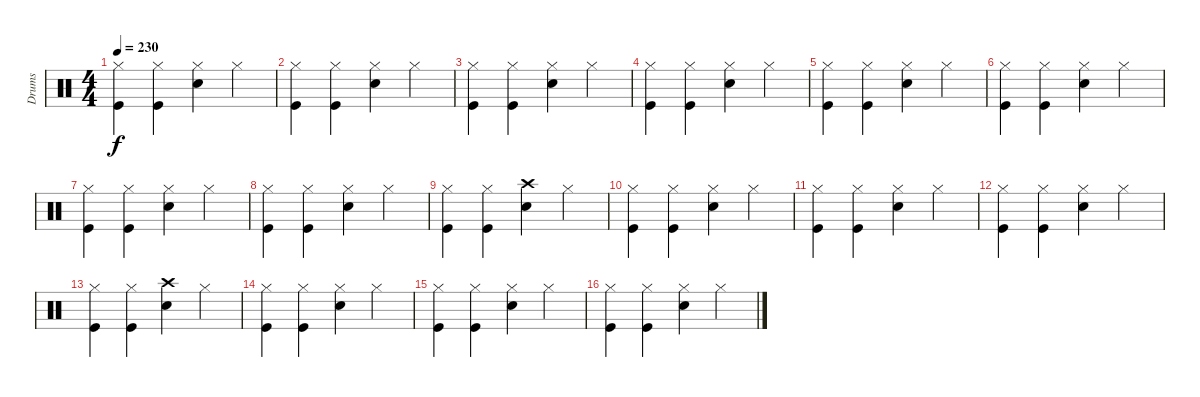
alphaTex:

\track ("Drums" "Drums") {instrument percussion}
\staff {score}
\articulation defaults
\ts (4 4)
\tempo 230
\clef neutral
\ks c
("Hi-Hat (closed)" "Kick (hit)").4{dy f} ("Hi-Hat (closed)" "Kick (hit)").4 ("Hi-Hat (closed)" "Snare (hit) 2").4 "Hi-Hat (closed)".4 |
("Hi-Hat (closed)" "Kick (hit)").4 ("Hi-Hat (closed)" "Kick (hit)").4 ("Hi-Hat (closed)" "Snare (hit) 2").4 "Hi-Hat (closed)".4 |
("Hi-Hat (closed)" "Kick (hit)").4 ("Hi-Hat (closed)" "Kick (hit)").4 ("Hi-Hat (closed)" "Snare (hit) 2").4 "Hi-Hat (closed)".4 |
("Hi-Hat (closed)" "Kick (hit)").4 ("Hi-Hat (closed)" "Kick (hit)").4 ("Hi-Hat (closed)" "Snare (hit) 2").4 "Hi-Hat (closed)".4 |
("Hi-Hat (closed)" "Kick (hit)").4 ("Hi-Hat (closed)" "Kick (hit)").4 ("Hi-Hat (closed)" "Snare (hit) 2").4 "Hi-Hat (closed)".4 |
("Hi-Hat (closed)" "Kick (hit)").4 ("Hi-Hat (closed)" "Kick (hit)").4 ("Hi-Hat (closed)" "Snare (hit) 2").4 "Hi-Hat (closed)".4 |
("Hi-Hat (closed)" "Kick (hit)").4 ("Hi-Hat (closed)" "Kick (hit)").4 ("Hi-Hat (closed)" "Snare (hit) 2").4 "Hi-Hat (closed)".4 |
("Hi-Hat (closed)" "Kick (hit)").4 ("Hi-Hat (closed)" "Kick (hit)").4 ("Hi-Hat (closed)" "Snare (hit) 2").4 "Hi-Hat (closed)".4 |
("Hi-Hat (closed)" "Kick (hit)").4 ("Hi-Hat (closed)" "Kick (hit)").4 ("Crash high (hit)" "Snare (hit) 2").4 "Hi-Hat (closed)".4 |
("Hi-Hat (closed)" "Kick (hit)").4 ("Hi-Hat (closed)" "Kick (hit)").4 ("Hi-Hat (closed)" "Snare (hit) 2").4 "Hi-Hat (closed)".4 |
("Hi-Hat (closed)" "Kick (hit)").4 ("Hi-Hat (closed)" "Kick (hit)").4 ("Hi-Hat (closed)" "Snare (hit) 2").4 "Hi-Hat (closed)".4 |
("Hi-Hat (closed)" "Kick (hit)").4 ("Hi-Hat (closed)" "Kick (hit)").4 ("Hi-Hat (closed)" "Snare (hit) 2").4 "Hi-Hat (closed)".4 |
("Hi-Hat (closed)" "Kick (hit)").4 ("Hi-Hat (closed)" "Kick (hit)").4 ("Crash high (hit)" "Snare (hit) 2").4 "Hi-Hat (closed)".4 |
("Hi-Hat (closed)" "Kick (hit)").4 ("Hi-Hat (closed)" "Kick (hit)").4 ("Hi-Hat (closed)" "Snare (hit) 2").4 "Hi-Hat (closed)".4 |
("Hi-Hat (closed)" "Kick (hit)").4 ("Hi-Hat (closed)" "Kick (hit)").4 ("Hi-Hat (closed)" "Snare (hit) 2").4 "Hi-Hat (closed)".4 |
("Hi-Hat (closed)" "Kick (hit)").4 ("Hi-Hat (closed)" "Kick (hit)").4 ("Hi-Hat (closed)" "Snare (hit) 2").4 "Hi-Hat (closed)".4
